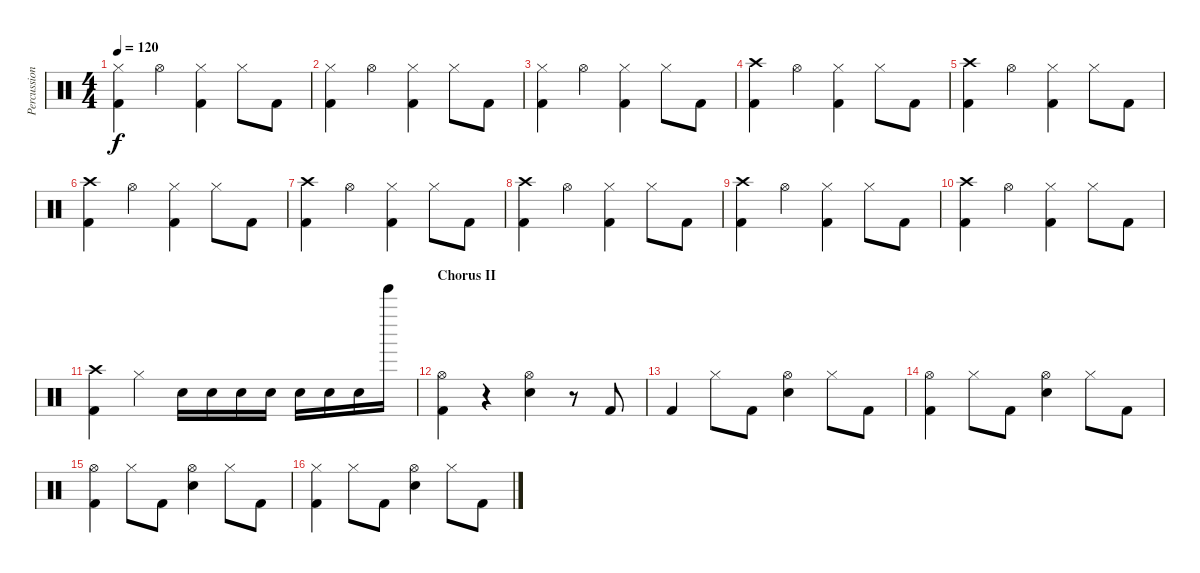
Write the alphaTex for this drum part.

\track ("Percussion" "Percussion") {instrument percussion}
\staff {score}
\articulation defaults
\ts (4 4)
\tempo 120
\clef neutral
\ks c
("Hi-Hat (closed)" "Kick (hit) 2").4{dy f} "Hi-Hat (open)".4 ("Hi-Hat (closed)" "Kick (hit) 2").4 "Hi-Hat (closed)".8 "Kick (hit) 2".8 |
("Hi-Hat (closed)" "Kick (hit) 2").4 "Hi-Hat (open)".4 ("Hi-Hat (closed)" "Kick (hit) 2").4 "Hi-Hat (closed)".8 "Kick (hit) 2".8 |
("Hi-Hat (closed)" "Kick (hit) 2").4 "Hi-Hat (open)".4 ("Hi-Hat (closed)" "Kick (hit) 2").4 "Hi-Hat (closed)".8 "Kick (hit) 2".8 |
("Crash high (hit)" "Kick (hit) 2").4 "Hi-Hat (open)".4 ("Hi-Hat (closed)" "Kick (hit) 2").4 "Hi-Hat (closed)".8 "Kick (hit) 2".8 |
("Crash high (hit)" "Kick (hit) 2").4 "Hi-Hat (open)".4 ("Hi-Hat (closed)" "Kick (hit) 2").4 "Hi-Hat (closed)".8 "Kick (hit) 2".8 |
("Crash high (hit)" "Kick (hit) 2").4 "Hi-Hat (open)".4 ("Hi-Hat (closed)" "Kick (hit) 2").4 "Hi-Hat (closed)".8 "Kick (hit) 2".8 |
("Crash high (hit)" "Kick (hit) 2").4 "Hi-Hat (open)".4 ("Hi-Hat (closed)" "Kick (hit) 2").4 "Hi-Hat (closed)".8 "Kick (hit) 2".8 |
("Crash high (hit)" "Kick (hit) 2").4 "Hi-Hat (open)".4 ("Hi-Hat (closed)" "Kick (hit) 2").4 "Hi-Hat (closed)".8 "Kick (hit) 2".8 |
("Crash high (hit)" "Kick (hit) 2").4 "Hi-Hat (open)".4 ("Hi-Hat (closed)" "Kick (hit) 2").4 "Hi-Hat (closed)".8 "Kick (hit) 2".8 |
("Crash high (hit)" "Kick (hit) 2").4 "Hi-Hat (open)".4 ("Hi-Hat (closed)" "Kick (hit) 2").4 "Hi-Hat (closed)".8 "Kick (hit) 2".8 |
("Crash high (hit)" "Kick (hit) 2").4 "Hi-Hat (closed)".4 "Snare (hit) 2".16 "Snare (hit) 2".16 "Snare (hit) 2".16 "Snare (hit) 2".16 "Snare (hit) 2".16 "Snare (hit) 2".16 "Snare (hit) 2".16 "Tinkle Bell (hit)".16 |
\section ("" "Chorus II")
("Hi-Hat (open)" "Kick (hit) 2").4 r.4 ("Hi-Hat (open)" "Snare (hit) 2").4 r.8 "Kick (hit) 2".8 |
"Kick (hit) 2".4 "Hi-Hat (closed)".8 "Kick (hit) 2".8 ("Hi-Hat (open)" "Snare (hit) 2").4 "Hi-Hat (closed)".8 "Kick (hit) 2".8 |
("Hi-Hat (open)" "Kick (hit) 2").4 "Hi-Hat (closed)".8 "Kick (hit) 2".8 ("Hi-Hat (open)" "Snare (hit) 2").4 "Hi-Hat (closed)".8 "Kick (hit) 2".8 |
("Hi-Hat (open)" "Kick (hit) 2").4 "Hi-Hat (closed)".8 "Kick (hit) 2".8 ("Hi-Hat (open)" "Snare (hit) 2").4 "Hi-Hat (closed)".8 "Kick (hit) 2".8 |
("Hi-Hat (closed)" "Kick (hit) 2").4 "Hi-Hat (closed)".8 "Kick (hit) 2".8 ("Hi-Hat (open)" "Snare (hit) 2").4 "Hi-Hat (closed)".8 "Kick (hit) 2".8
